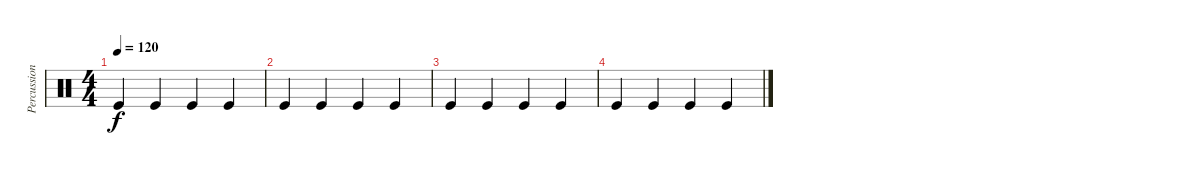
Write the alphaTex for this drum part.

\track ("Percussion" "Percussion") {instrument percussion}
\staff {score}
\articulation defaults
\ts (4 4)
\tempo 120
\clef neutral
\ks c "Kick (hit)".4{dy f} "Kick (hit)".4 "Kick (hit)".4 "Kick (hit)".4
|
"Kick (hit)".4 "Kick (hit)".4 "Kick (hit)".4 "Kick (hit)".4 |
"Kick (hit)".4 "Kick (hit)".4 "Kick (hit)".4 "Kick (hit)".4 |
"Kick (hit)".4 "Kick (hit)".4 "Kick (hit)".4 "Kick (hit)".4
